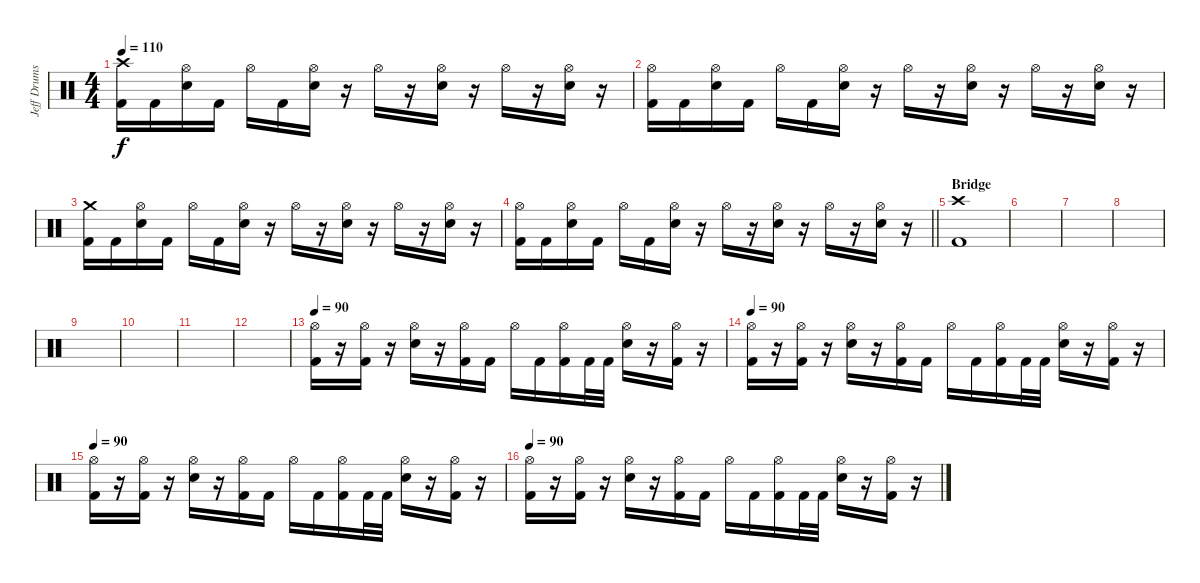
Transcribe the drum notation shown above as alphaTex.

\track ("Jeff Drums" "Jeff Drums") {instrument percussion}
\staff {score}
\articulation defaults
\ts (4 4)
\tempo 110
\clef neutral
\ks c
("Crash high (hit)" "Kick (hit) 2").16{dy f} "Kick (hit) 2".16 ("Hi-Hat (open)" "Electric Snare (hit)").16 "Kick (hit) 2".16 "Hi-Hat (open)".16 "Kick (hit) 2".16 ("Hi-Hat (open)" "Electric Snare (hit)").16 r.16 "Hi-Hat (open)".16 r.16 ("Hi-Hat (open)" "Electric Snare (hit)").16 r.16 "Hi-Hat (open)".16 r.16 ("Hi-Hat (open)" "Electric Snare (hit)").16 r.16 |
("Hi-Hat (open)" "Kick (hit) 2").16 "Kick (hit) 2".16 ("Hi-Hat (open)" "Electric Snare (hit)").16 "Kick (hit) 2".16 "Hi-Hat (open)".16 "Kick (hit) 2".16 ("Hi-Hat (open)" "Electric Snare (hit)").16 r.16 "Hi-Hat (open)".16 r.16 ("Hi-Hat (open)" "Electric Snare (hit)").16 r.16 "Hi-Hat (open)".16 r.16 ("Hi-Hat (open)" "Electric Snare (hit)").16 r.16 |
("Crash medium (hit)" "Kick (hit) 2").16 "Kick (hit) 2".16 ("Hi-Hat (open)" "Electric Snare (hit)").16 "Kick (hit) 2".16 "Hi-Hat (open)".16 "Kick (hit) 2".16 ("Hi-Hat (open)" "Electric Snare (hit)").16 r.16 "Hi-Hat (open)".16 r.16 ("Hi-Hat (open)" "Electric Snare (hit)").16 r.16 "Hi-Hat (open)".16 r.16 ("Hi-Hat (open)" "Electric Snare (hit)").16 r.16 |
\barLineRight lightlight
("Hi-Hat (open)" "Kick (hit) 2").16 "Kick (hit) 2".16 ("Hi-Hat (open)" "Electric Snare (hit)").16 "Kick (hit) 2".16 "Hi-Hat (open)".16 "Kick (hit) 2".16 ("Hi-Hat (open)" "Electric Snare (hit)").16 r.16 "Hi-Hat (open)".16 r.16 ("Hi-Hat (open)" "Electric Snare (hit)").16 r.16 "Hi-Hat (open)".16 r.16 ("Hi-Hat (open)" "Electric Snare (hit)").16 r.16 |
\section ("" "Bridge")
("Crash high (hit)" "Kick (hit) 2").1 |
|
|
|
|
|
|
|
\tempo 90
("Hi-Hat (open)" "Kick (hit) 2").16 r.16 ("Hi-Hat (open)" "Kick (hit) 2").16 r.16 ("Hi-Hat (open)" "Electric Snare (hit)").16 r.16 ("Hi-Hat (open)" "Kick (hit) 2").16 "Kick (hit) 2".16 "Hi-Hat (open)".16 "Kick (hit) 2".16 ("Hi-Hat (open)" "Kick (hit) 2").16 "Kick (hit) 2".32 "Kick (hit) 2".32 ("Hi-Hat (open)" "Electric Snare (hit)").16 r.16 ("Hi-Hat (open)" "Kick (hit) 2").16 r.16 |
\tempo 90
("Hi-Hat (open)" "Kick (hit) 2").16 r.16 ("Hi-Hat (open)" "Kick (hit) 2").16 r.16 ("Hi-Hat (open)" "Electric Snare (hit)").16 r.16 ("Hi-Hat (open)" "Kick (hit) 2").16 "Kick (hit) 2".16 "Hi-Hat (open)".16 "Kick (hit) 2".16 ("Hi-Hat (open)" "Kick (hit) 2").16 "Kick (hit) 2".32 "Kick (hit) 2".32 ("Hi-Hat (open)" "Electric Snare (hit)").16 r.16 ("Hi-Hat (open)" "Kick (hit) 2").16 r.16 |
\tempo 90
("Hi-Hat (open)" "Kick (hit) 2").16 r.16 ("Hi-Hat (open)" "Kick (hit) 2").16 r.16 ("Hi-Hat (open)" "Electric Snare (hit)").16 r.16 ("Hi-Hat (open)" "Kick (hit) 2").16 "Kick (hit) 2".16 "Hi-Hat (open)".16 "Kick (hit) 2".16 ("Hi-Hat (open)" "Kick (hit) 2").16 "Kick (hit) 2".32 "Kick (hit) 2".32 ("Hi-Hat (open)" "Electric Snare (hit)").16 r.16 ("Hi-Hat (open)" "Kick (hit) 2").16 r.16 |
\tempo 90
("Hi-Hat (open)" "Kick (hit) 2").16 r.16 ("Hi-Hat (open)" "Kick (hit) 2").16 r.16 ("Hi-Hat (open)" "Electric Snare (hit)").16 r.16 ("Hi-Hat (open)" "Kick (hit) 2").16 "Kick (hit) 2".16 "Hi-Hat (open)".16 "Kick (hit) 2".16 ("Hi-Hat (open)" "Kick (hit) 2").16 "Kick (hit) 2".32 "Kick (hit) 2".32 ("Hi-Hat (open)" "Electric Snare (hit)").16 r.16 ("Hi-Hat (open)" "Kick (hit) 2").16 r.16
